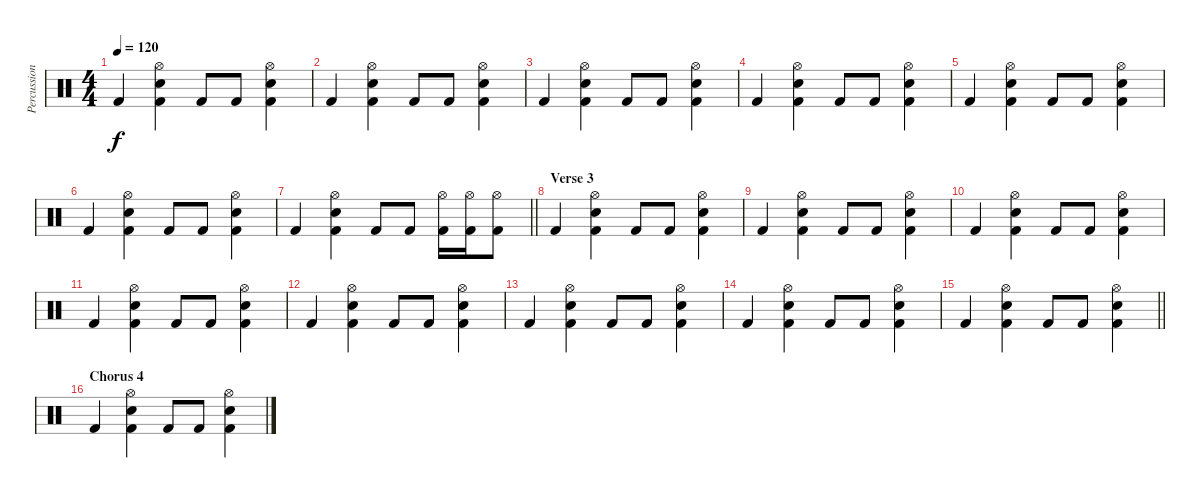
\track ("Percussion" "Percussion") {instrument percussion}
\staff {score}
\articulation defaults
\ts (4 4)
\tempo 120
\clef neutral
\ks c "Kick (hit) 2".4{dy f}
("Electric Snare (hit)" "Hi-Hat (open)" "Kick (hit) 2").4 "Kick (hit) 2".8 "Kick (hit) 2".8 ("Electric Snare (hit)" "Hi-Hat (open)" "Kick (hit) 2").4 |
"Kick (hit) 2".4 ("Electric Snare (hit)" "Hi-Hat (open)" "Kick (hit) 2").4 "Kick (hit) 2".8 "Kick (hit) 2".8 ("Electric Snare (hit)" "Hi-Hat (open)" "Kick (hit) 2").4 |
"Kick (hit) 2".4 ("Electric Snare (hit)" "Hi-Hat (open)" "Kick (hit) 2").4 "Kick (hit) 2".8 "Kick (hit) 2".8 ("Electric Snare (hit)" "Hi-Hat (open)" "Kick (hit) 2").4 |
"Kick (hit) 2".4 ("Electric Snare (hit)" "Hi-Hat (open)" "Kick (hit) 2").4 "Kick (hit) 2".8 "Kick (hit) 2".8 ("Electric Snare (hit)" "Hi-Hat (open)" "Kick (hit) 2").4 |
"Kick (hit) 2".4 ("Electric Snare (hit)" "Hi-Hat (open)" "Kick (hit) 2").4 "Kick (hit) 2".8 "Kick (hit) 2".8 ("Electric Snare (hit)" "Hi-Hat (open)" "Kick (hit) 2").4 |
"Kick (hit) 2".4 ("Electric Snare (hit)" "Hi-Hat (open)" "Kick (hit) 2").4 "Kick (hit) 2".8 "Kick (hit) 2".8 ("Electric Snare (hit)" "Hi-Hat (open)" "Kick (hit) 2").4 |
\barLineRight lightlight "Kick (hit) 2".4
("Electric Snare (hit)" "Hi-Hat (open)" "Kick (hit) 2").4 "Kick (hit) 2".8 "Kick (hit) 2".8 ("Hi-Hat (open)" "Kick (hit) 2").16 ("Hi-Hat (open)" "Kick (hit) 2").16 ("Hi-Hat (open)" "Kick (hit) 2").8 |
\section ("" "Verse 3")
"Kick (hit) 2".4 ("Electric Snare (hit)" "Hi-Hat (open)" "Kick (hit) 2").4 "Kick (hit) 2".8 "Kick (hit) 2".8 ("Electric Snare (hit)" "Hi-Hat (open)" "Kick (hit) 2").4 |
"Kick (hit) 2".4 ("Electric Snare (hit)" "Hi-Hat (open)" "Kick (hit) 2").4 "Kick (hit) 2".8 "Kick (hit) 2".8 ("Electric Snare (hit)" "Hi-Hat (open)" "Kick (hit) 2").4 |
"Kick (hit) 2".4 ("Electric Snare (hit)" "Hi-Hat (open)" "Kick (hit) 2").4 "Kick (hit) 2".8 "Kick (hit) 2".8 ("Electric Snare (hit)" "Hi-Hat (open)" "Kick (hit) 2").4 |
"Kick (hit) 2".4 ("Electric Snare (hit)" "Hi-Hat (open)" "Kick (hit) 2").4 "Kick (hit) 2".8 "Kick (hit) 2".8 ("Electric Snare (hit)" "Hi-Hat (open)" "Kick (hit) 2").4 |
"Kick (hit) 2".4 ("Electric Snare (hit)" "Hi-Hat (open)" "Kick (hit) 2").4 "Kick (hit) 2".8 "Kick (hit) 2".8 ("Electric Snare (hit)" "Hi-Hat (open)" "Kick (hit) 2").4 |
"Kick (hit) 2".4 ("Electric Snare (hit)" "Hi-Hat (open)" "Kick (hit) 2").4 "Kick (hit) 2".8 "Kick (hit) 2".8 ("Electric Snare (hit)" "Hi-Hat (open)" "Kick (hit) 2").4 |
"Kick (hit) 2".4 ("Electric Snare (hit)" "Hi-Hat (open)" "Kick (hit) 2").4 "Kick (hit) 2".8 "Kick (hit) 2".8 ("Electric Snare (hit)" "Hi-Hat (open)" "Kick (hit) 2").4 |
\barLineRight lightlight "Kick (hit) 2".4
("Electric Snare (hit)" "Hi-Hat (open)" "Kick (hit) 2").4 "Kick (hit) 2".8 "Kick (hit) 2".8 ("Electric Snare (hit)" "Hi-Hat (open)" "Kick (hit) 2").4 |
\section ("" "Chorus 4")
"Kick (hit) 2".4 ("Electric Snare (hit)" "Hi-Hat (open)" "Kick (hit) 2").4 "Kick (hit) 2".8 "Kick (hit) 2".8 ("Electric Snare (hit)" "Hi-Hat (open)" "Kick (hit) 2").4
